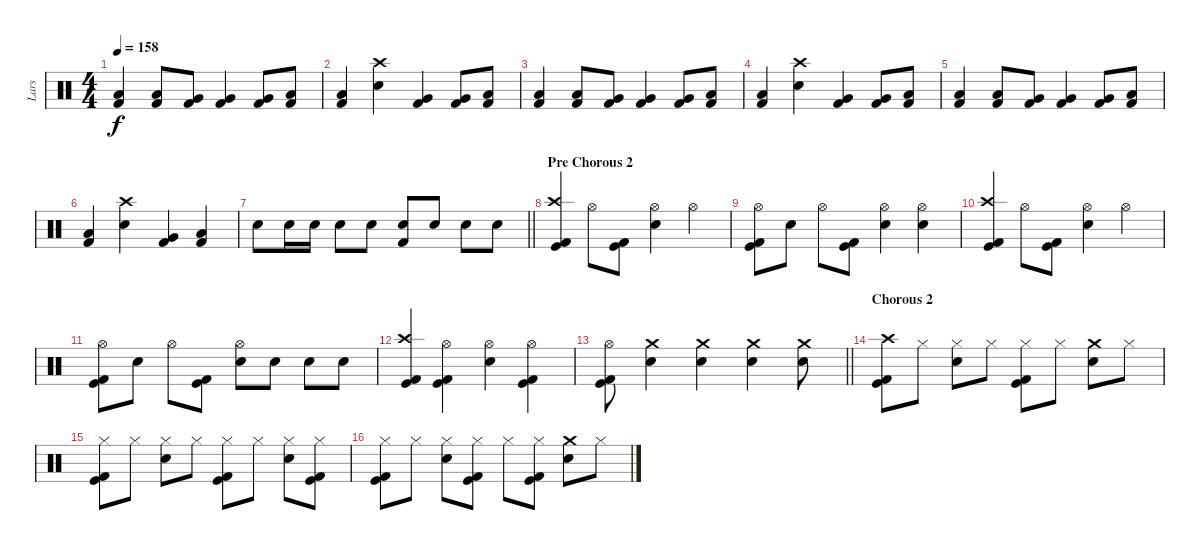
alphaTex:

\track ("Lars" "Lars") {instrument percussion}
\staff {score}
\articulation defaults
\ts (4 4)
\tempo 158
\clef neutral
\ks c
("Kick (hit) 2" "Low Tom (hit)").4{dy f} ("Kick (hit) 2" "Low Tom (hit)").8 ("Kick (hit) 2" "Very Low Tom (hit)").8 ("Kick (hit) 2" "Very Low Tom (hit)").4 ("Kick (hit) 2" "Very Low Tom (hit)").8 ("Kick (hit) 2" "Low Floor Tom (hit)").8 |
("Kick (hit) 2" "Low Tom (hit)").4 ("Crash high (hit)" "Electric Snare (hit)").4 ("Kick (hit) 2" "Very Low Tom (hit)").4 ("Kick (hit) 2" "Very Low Tom (hit)").8 ("Kick (hit) 2" "Low Floor Tom (hit)").8 |
("Kick (hit) 2" "Low Tom (hit)").4 ("Kick (hit) 2" "Low Tom (hit)").8 ("Kick (hit) 2" "Very Low Tom (hit)").8 ("Kick (hit) 2" "Very Low Tom (hit)").4 ("Kick (hit) 2" "Very Low Tom (hit)").8 ("Kick (hit) 2" "Low Floor Tom (hit)").8 |
("Kick (hit) 2" "Low Tom (hit)").4 ("Crash high (hit)" "Electric Snare (hit)").4 ("Kick (hit) 2" "Very Low Tom (hit)").4 ("Kick (hit) 2" "Very Low Tom (hit)").8 ("Kick (hit) 2" "Low Floor Tom (hit)").8 |
("Kick (hit) 2" "Low Tom (hit)").4 ("Kick (hit) 2" "Low Tom (hit)").8 ("Kick (hit) 2" "Very Low Tom (hit)").8 ("Kick (hit) 2" "Very Low Tom (hit)").4 ("Kick (hit) 2" "Very Low Tom (hit)").8 ("Kick (hit) 2" "Low Floor Tom (hit)").8 |
("Kick (hit) 2" "Low Tom (hit)").4 ("Crash high (hit)" "Electric Snare (hit)").4 ("Kick (hit) 2" "Very Low Tom (hit)").4 ("Kick (hit) 2" "Low Floor Tom (hit)").4 |
\barLineRight lightlight "Electric Snare (hit)".8 "Electric Snare (hit)".16 "Electric Snare (hit)".16 "Electric Snare (hit)".8 "Electric Snare (hit)".8
("Electric Snare (hit)" "Kick (hit) 2").8 "Electric Snare (hit)".8 "Electric Snare (hit)".8 "Electric Snare (hit)".8 |
\section ("" "Pre Chorous 2")
("Crash high (hit)" "Kick (hit)" "Kick (hit) 2").4 "Hi-Hat (open)".8 ("Kick (hit)" "Kick (hit) 2").8 ("Hi-Hat (open)" "Electric Snare (hit)").4 "Hi-Hat (open)".4 |
("Hi-Hat (open)" "Kick (hit)" "Kick (hit) 2").8 "Electric Snare (hit)".8 "Hi-Hat (open)".8 ("Kick (hit)" "Kick (hit) 2").8 ("Hi-Hat (open)" "Electric Snare (hit)").4 ("Hi-Hat (open)" "Electric Snare (hit)").4 |
("Crash high (hit)" "Kick (hit)" "Kick (hit) 2").4 "Hi-Hat (open)".8 ("Kick (hit)" "Kick (hit) 2").8 ("Hi-Hat (open)" "Electric Snare (hit)").4 "Hi-Hat (open)".4 |
("Hi-Hat (open)" "Kick (hit)" "Kick (hit) 2").8 "Electric Snare (hit)".8 "Hi-Hat (open)".8 ("Kick (hit)" "Kick (hit) 2").8 ("Hi-Hat (open)" "Electric Snare (hit)").8 "Electric Snare (hit)".8 "Electric Snare (hit)".8 "Electric Snare (hit)".8 |
("Crash high (hit)" "Kick (hit)" "Kick (hit) 2").4 ("Hi-Hat (open)" "Kick (hit)" "Kick (hit) 2").4 ("Hi-Hat (open)" "Electric Snare (hit)").4 ("Hi-Hat (open)" "Kick (hit)" "Kick (hit) 2").4 |
\barLineRight lightlight
("Hi-Hat (open)" "Kick (hit)" "Kick (hit) 2").8 ("Crash medium (hit)" "Electric Snare (hit)").4 ("Crash medium (hit)" "Electric Snare (hit)").4 ("Crash medium (hit)" "Electric Snare (hit)").4 ("Crash medium (hit)" "Electric Snare (hit)").8 |
\section ("" "Chorous 2")
("Crash high (hit)" "Kick (hit)" "Kick (hit) 2").8 "Hi-Hat (closed)".8 ("Hi-Hat (closed)" "Electric Snare (hit)").8 "Hi-Hat (closed)".8 ("Hi-Hat (closed)" "Kick (hit)" "Kick (hit) 2").8 "Hi-Hat (closed)".8 ("Crash medium (hit)" "Electric Snare (hit)").8 "Hi-Hat (closed)".8 |
("Hi-Hat (closed)" "Kick (hit)" "Kick (hit) 2").8 "Hi-Hat (closed)".8 ("Hi-Hat (closed)" "Electric Snare (hit)").8 "Hi-Hat (closed)".8 ("Hi-Hat (closed)" "Kick (hit)" "Kick (hit) 2").8 "Hi-Hat (closed)".8 ("Hi-Hat (closed)" "Electric Snare (hit)").8 ("Hi-Hat (closed)" "Kick (hit)" "Kick (hit) 2").8 |
("Hi-Hat (closed)" "Kick (hit)" "Kick (hit) 2").8 "Hi-Hat (closed)".8 ("Hi-Hat (closed)" "Electric Snare (hit)").8 ("Hi-Hat (closed)" "Kick (hit)" "Kick (hit) 2").8 "Hi-Hat (closed)".8 ("Hi-Hat (closed)" "Kick (hit)" "Kick (hit) 2").8 ("Crash medium (hit)" "Electric Snare (hit)").8 "Hi-Hat (closed)".8
